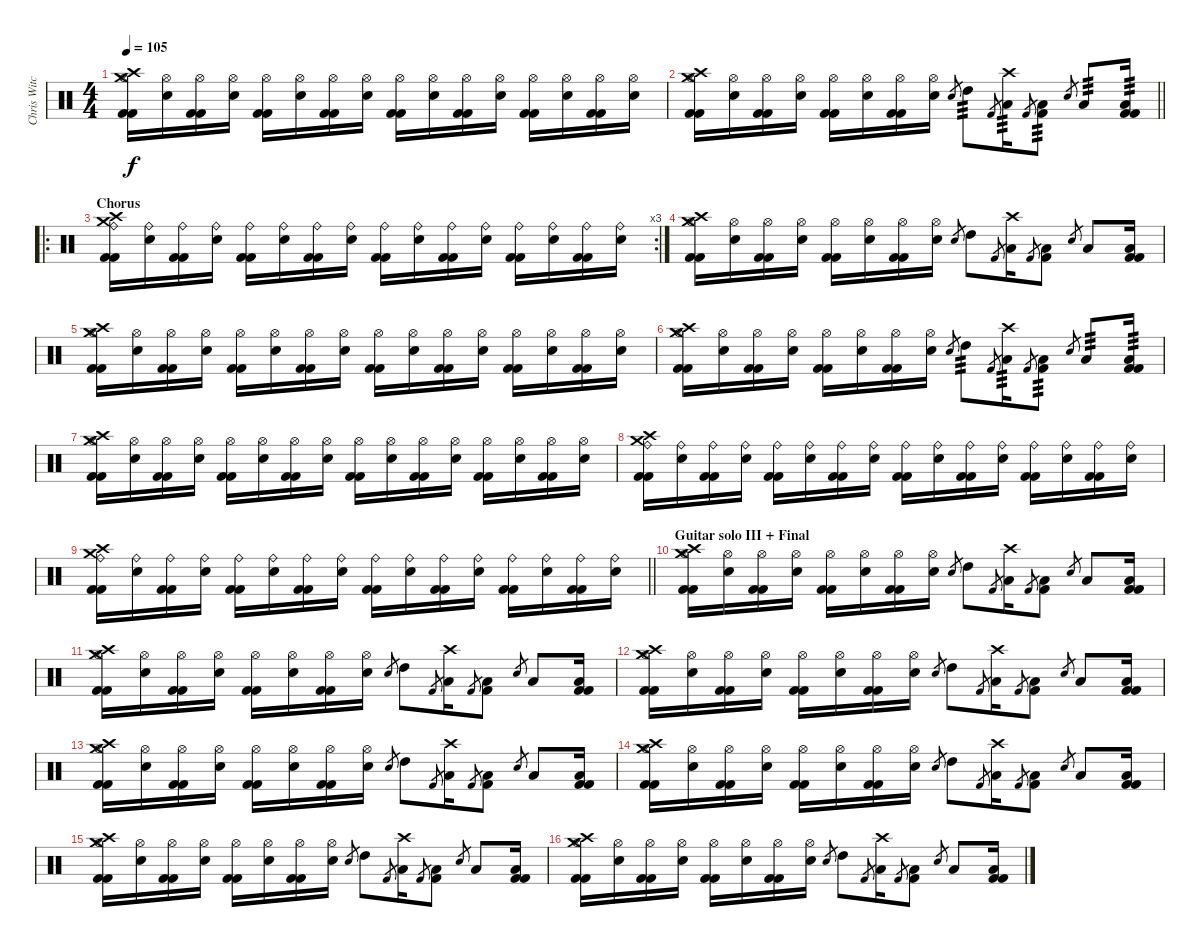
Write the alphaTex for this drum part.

\track ("Chris Witchhunter" "Chris Witc") {instrument percussion}
\staff {score}
\articulation defaults
\ts (4 4)
\tempo 105
\clef neutral
\ks c
("Crash medium (hit)" "Crash high (hit)" "Hi-Hat (open)" "Kick (hit) 2" "Kick (hit) 2").16{dy f} ("Hi-Hat (open)" "Electric Snare (hit)").16 ("Hi-Hat (open)" "Kick (hit) 2" "Kick (hit) 2").16 ("Hi-Hat (open)" "Electric Snare (hit)").16 ("Hi-Hat (open)" "Kick (hit) 2" "Kick (hit) 2").16 ("Hi-Hat (open)" "Electric Snare (hit)").16 ("Hi-Hat (open)" "Kick (hit) 2" "Kick (hit) 2").16 ("Hi-Hat (open)" "Electric Snare (hit)").16 ("Hi-Hat (open)" "Kick (hit) 2" "Kick (hit) 2").16 ("Hi-Hat (open)" "Electric Snare (hit)").16 ("Hi-Hat (open)" "Kick (hit) 2" "Kick (hit) 2").16 ("Hi-Hat (open)" "Electric Snare (hit)").16 ("Hi-Hat (open)" "Kick (hit) 2" "Kick (hit) 2").16 ("Hi-Hat (open)" "Electric Snare (hit)").16 ("Hi-Hat (open)" "Kick (hit) 2" "Kick (hit) 2").16 ("Hi-Hat (open)" "Electric Snare (hit)").16 |
\barLineRight lightlight
("Crash medium (hit)" "Crash high (hit)" "Hi-Hat (open)" "Kick (hit) 2" "Kick (hit) 2").16 ("Hi-Hat (open)" "Electric Snare (hit)").16 ("Hi-Hat (open)" "Kick (hit) 2" "Kick (hit) 2").16 ("Hi-Hat (open)" "Electric Snare (hit)").16 ("Hi-Hat (open)" "Kick (hit) 2" "Kick (hit) 2").16 ("Hi-Hat (open)" "Electric Snare (hit)").16 ("Hi-Hat (open)" "Kick (hit) 2" "Kick (hit) 2").16 ("Hi-Hat (open)" "Electric Snare (hit)").16 "Electric Snare (hit)".8{gr} "High Tom (hit)".8{tp 3} "Kick (hit) 2".8{gr} ("Crash high (hit)" "Low Tom (hit)").16{tp 3} "Kick (hit) 2".8{gr} ("Low Tom (hit)" "Kick (hit) 2").8{tp 3} "Electric Snare (hit)".8{gr} "Low Floor Tom (hit)".8{tp 3} ("Low Tom (hit)" "Kick (hit) 2" "Kick (hit) 2").16{tp 3} |
\ro
\rc 3
\section ("" "Chorus")
("Crash medium (hit)" "Crash high (hit)" "Ride (bell)" "Kick (hit) 2" "Kick (hit) 2").16 ("Ride (bell)" "Electric Snare (hit)").16 ("Ride (bell)" "Kick (hit) 2" "Kick (hit) 2").16 ("Ride (bell)" "Electric Snare (hit)").16 ("Ride (bell)" "Kick (hit) 2" "Kick (hit) 2").16 ("Ride (bell)" "Electric Snare (hit)").16 ("Ride (bell)" "Kick (hit) 2" "Kick (hit) 2").16 ("Ride (bell)" "Electric Snare (hit)").16 ("Ride (bell)" "Kick (hit) 2" "Kick (hit) 2").16 ("Ride (bell)" "Electric Snare (hit)").16 ("Ride (bell)" "Kick (hit) 2" "Kick (hit) 2").16 ("Ride (bell)" "Electric Snare (hit)").16 ("Ride (bell)" "Kick (hit) 2" "Kick (hit) 2").16 ("Ride (bell)" "Electric Snare (hit)").16 ("Ride (bell)" "Kick (hit) 2" "Kick (hit) 2").16 ("Ride (bell)" "Electric Snare (hit)").16 |
("Crash medium (hit)" "Crash high (hit)" "Hi-Hat (open)" "Kick (hit) 2" "Kick (hit) 2").16 ("Hi-Hat (open)" "Electric Snare (hit)").16 ("Hi-Hat (open)" "Kick (hit) 2" "Kick (hit) 2").16 ("Hi-Hat (open)" "Electric Snare (hit)").16 ("Hi-Hat (open)" "Kick (hit) 2" "Kick (hit) 2").16 ("Hi-Hat (open)" "Electric Snare (hit)").16 ("Hi-Hat (open)" "Kick (hit) 2" "Kick (hit) 2").16 ("Hi-Hat (open)" "Electric Snare (hit)").16 "Electric Snare (hit)".8{gr} "High Tom (hit)".8 "Kick (hit) 2".8{gr} ("Crash high (hit)" "Low Tom (hit)").16 "Kick (hit) 2".8{gr} ("Low Tom (hit)" "Kick (hit) 2").8 "Electric Snare (hit)".8{gr} "Low Floor Tom (hit)".8 ("Low Tom (hit)" "Kick (hit) 2" "Kick (hit) 2").16 |
("Crash medium (hit)" "Crash high (hit)" "Hi-Hat (open)" "Kick (hit) 2" "Kick (hit) 2").16 ("Hi-Hat (open)" "Electric Snare (hit)").16 ("Hi-Hat (open)" "Kick (hit) 2" "Kick (hit) 2").16 ("Hi-Hat (open)" "Electric Snare (hit)").16 ("Hi-Hat (open)" "Kick (hit) 2" "Kick (hit) 2").16 ("Hi-Hat (open)" "Electric Snare (hit)").16 ("Hi-Hat (open)" "Kick (hit) 2" "Kick (hit) 2").16 ("Hi-Hat (open)" "Electric Snare (hit)").16 ("Hi-Hat (open)" "Kick (hit) 2" "Kick (hit) 2").16 ("Hi-Hat (open)" "Electric Snare (hit)").16 ("Hi-Hat (open)" "Kick (hit) 2" "Kick (hit) 2").16 ("Hi-Hat (open)" "Electric Snare (hit)").16 ("Hi-Hat (open)" "Kick (hit) 2" "Kick (hit) 2").16 ("Hi-Hat (open)" "Electric Snare (hit)").16 ("Hi-Hat (open)" "Kick (hit) 2" "Kick (hit) 2").16 ("Hi-Hat (open)" "Electric Snare (hit)").16 |
("Crash medium (hit)" "Crash high (hit)" "Hi-Hat (open)" "Kick (hit) 2" "Kick (hit) 2").16 ("Hi-Hat (open)" "Electric Snare (hit)").16 ("Hi-Hat (open)" "Kick (hit) 2" "Kick (hit) 2").16 ("Hi-Hat (open)" "Electric Snare (hit)").16 ("Hi-Hat (open)" "Kick (hit) 2" "Kick (hit) 2").16 ("Hi-Hat (open)" "Electric Snare (hit)").16 ("Hi-Hat (open)" "Kick (hit) 2" "Kick (hit) 2").16 ("Hi-Hat (open)" "Electric Snare (hit)").16 "Electric Snare (hit)".8{gr} "High Tom (hit)".8{tp 3} "Kick (hit) 2".8{gr} ("Crash high (hit)" "Low Tom (hit)").16{tp 3} "Kick (hit) 2".8{gr} ("Low Tom (hit)" "Kick (hit) 2").8{tp 3} "Electric Snare (hit)".8{gr} "Low Floor Tom (hit)".8{tp 3} ("Low Tom (hit)" "Kick (hit) 2" "Kick (hit) 2").16{tp 3} |
("Crash medium (hit)" "Crash high (hit)" "Hi-Hat (open)" "Kick (hit) 2" "Kick (hit) 2").16 ("Hi-Hat (open)" "Electric Snare (hit)").16 ("Hi-Hat (open)" "Kick (hit) 2" "Kick (hit) 2").16 ("Hi-Hat (open)" "Electric Snare (hit)").16 ("Hi-Hat (open)" "Kick (hit) 2" "Kick (hit) 2").16 ("Hi-Hat (open)" "Electric Snare (hit)").16 ("Hi-Hat (open)" "Kick (hit) 2" "Kick (hit) 2").16 ("Hi-Hat (open)" "Electric Snare (hit)").16 ("Hi-Hat (open)" "Kick (hit) 2" "Kick (hit) 2").16 ("Hi-Hat (open)" "Electric Snare (hit)").16 ("Hi-Hat (open)" "Kick (hit) 2" "Kick (hit) 2").16 ("Hi-Hat (open)" "Electric Snare (hit)").16 ("Hi-Hat (open)" "Kick (hit) 2" "Kick (hit) 2").16 ("Hi-Hat (open)" "Electric Snare (hit)").16 ("Hi-Hat (open)" "Kick (hit) 2" "Kick (hit) 2").16 ("Hi-Hat (open)" "Electric Snare (hit)").16 |
("Crash medium (hit)" "Crash high (hit)" "Ride (bell)" "Kick (hit) 2" "Kick (hit) 2").16 ("Ride (bell)" "Electric Snare (hit)").16 ("Ride (bell)" "Kick (hit) 2" "Kick (hit) 2").16 ("Ride (bell)" "Electric Snare (hit)").16 ("Ride (bell)" "Kick (hit) 2" "Kick (hit) 2").16 ("Ride (bell)" "Electric Snare (hit)").16 ("Ride (bell)" "Kick (hit) 2" "Kick (hit) 2").16 ("Ride (bell)" "Electric Snare (hit)").16 ("Ride (bell)" "Kick (hit) 2" "Kick (hit) 2").16 ("Ride (bell)" "Electric Snare (hit)").16 ("Ride (bell)" "Kick (hit) 2" "Kick (hit) 2").16 ("Ride (bell)" "Electric Snare (hit)").16 ("Ride (bell)" "Kick (hit) 2" "Kick (hit) 2").16 ("Ride (bell)" "Electric Snare (hit)").16 ("Ride (bell)" "Kick (hit) 2" "Kick (hit) 2").16 ("Ride (bell)" "Electric Snare (hit)").16 |
\barLineRight lightlight
("Crash medium (hit)" "Crash high (hit)" "Ride (bell)" "Kick (hit) 2" "Kick (hit) 2").16 ("Ride (bell)" "Electric Snare (hit)").16 ("Ride (bell)" "Kick (hit) 2" "Kick (hit) 2").16 ("Ride (bell)" "Electric Snare (hit)").16 ("Ride (bell)" "Kick (hit) 2" "Kick (hit) 2").16 ("Ride (bell)" "Electric Snare (hit)").16 ("Ride (bell)" "Kick (hit) 2" "Kick (hit) 2").16 ("Ride (bell)" "Electric Snare (hit)").16 ("Ride (bell)" "Kick (hit) 2" "Kick (hit) 2").16 ("Ride (bell)" "Electric Snare (hit)").16 ("Ride (bell)" "Kick (hit) 2" "Kick (hit) 2").16 ("Ride (bell)" "Electric Snare (hit)").16 ("Ride (bell)" "Kick (hit) 2" "Kick (hit) 2").16 ("Ride (bell)" "Electric Snare (hit)").16 ("Ride (bell)" "Kick (hit) 2" "Kick (hit) 2").16 ("Ride (bell)" "Electric Snare (hit)").16 |
\section ("" "Guitar solo III + Final")
("Crash medium (hit)" "Crash high (hit)" "Hi-Hat (open)" "Kick (hit) 2" "Kick (hit) 2").16 ("Hi-Hat (open)" "Electric Snare (hit)").16 ("Hi-Hat (open)" "Kick (hit) 2" "Kick (hit) 2").16 ("Hi-Hat (open)" "Electric Snare (hit)").16 ("Hi-Hat (open)" "Kick (hit) 2" "Kick (hit) 2").16 ("Hi-Hat (open)" "Electric Snare (hit)").16 ("Hi-Hat (open)" "Kick (hit) 2" "Kick (hit) 2").16 ("Hi-Hat (open)" "Electric Snare (hit)").16 "Electric Snare (hit)".8{gr} "High Tom (hit)".8 "Kick (hit) 2".8{gr} ("Crash high (hit)" "Low Tom (hit)").16 "Kick (hit) 2".8{gr} ("Low Tom (hit)" "Kick (hit) 2").8 "Electric Snare (hit)".8{gr} "Low Floor Tom (hit)".8 ("Low Tom (hit)" "Kick (hit) 2" "Kick (hit) 2").16 |
("Crash medium (hit)" "Crash high (hit)" "Hi-Hat (open)" "Kick (hit) 2" "Kick (hit) 2").16 ("Hi-Hat (open)" "Electric Snare (hit)").16 ("Hi-Hat (open)" "Kick (hit) 2" "Kick (hit) 2").16 ("Hi-Hat (open)" "Electric Snare (hit)").16 ("Hi-Hat (open)" "Kick (hit) 2" "Kick (hit) 2").16 ("Hi-Hat (open)" "Electric Snare (hit)").16 ("Hi-Hat (open)" "Kick (hit) 2" "Kick (hit) 2").16 ("Hi-Hat (open)" "Electric Snare (hit)").16 "Electric Snare (hit)".8{gr} "High Tom (hit)".8 "Kick (hit) 2".8{gr} ("Crash high (hit)" "Low Tom (hit)").16 "Kick (hit) 2".8{gr} ("Low Tom (hit)" "Kick (hit) 2").8 "Electric Snare (hit)".8{gr} "Low Floor Tom (hit)".8 ("Low Tom (hit)" "Kick (hit) 2" "Kick (hit) 2").16 |
("Crash medium (hit)" "Crash high (hit)" "Hi-Hat (open)" "Kick (hit) 2" "Kick (hit) 2").16 ("Hi-Hat (open)" "Electric Snare (hit)").16 ("Hi-Hat (open)" "Kick (hit) 2" "Kick (hit) 2").16 ("Hi-Hat (open)" "Electric Snare (hit)").16 ("Hi-Hat (open)" "Kick (hit) 2" "Kick (hit) 2").16 ("Hi-Hat (open)" "Electric Snare (hit)").16 ("Hi-Hat (open)" "Kick (hit) 2" "Kick (hit) 2").16 ("Hi-Hat (open)" "Electric Snare (hit)").16 "Electric Snare (hit)".8{gr} "High Tom (hit)".8 "Kick (hit) 2".8{gr} ("Crash high (hit)" "Low Tom (hit)").16 "Kick (hit) 2".8{gr} ("Low Tom (hit)" "Kick (hit) 2").8 "Electric Snare (hit)".8{gr} "Low Floor Tom (hit)".8 ("Low Tom (hit)" "Kick (hit) 2" "Kick (hit) 2").16 |
("Crash medium (hit)" "Crash high (hit)" "Hi-Hat (open)" "Kick (hit) 2" "Kick (hit) 2").16 ("Hi-Hat (open)" "Electric Snare (hit)").16 ("Hi-Hat (open)" "Kick (hit) 2" "Kick (hit) 2").16 ("Hi-Hat (open)" "Electric Snare (hit)").16 ("Hi-Hat (open)" "Kick (hit) 2" "Kick (hit) 2").16 ("Hi-Hat (open)" "Electric Snare (hit)").16 ("Hi-Hat (open)" "Kick (hit) 2" "Kick (hit) 2").16 ("Hi-Hat (open)" "Electric Snare (hit)").16 "Electric Snare (hit)".8{gr} "High Tom (hit)".8 "Kick (hit) 2".8{gr} ("Crash high (hit)" "Low Tom (hit)").16 "Kick (hit) 2".8{gr} ("Low Tom (hit)" "Kick (hit) 2").8 "Electric Snare (hit)".8{gr} "Low Floor Tom (hit)".8 ("Low Tom (hit)" "Kick (hit) 2" "Kick (hit) 2").16 |
("Crash medium (hit)" "Crash high (hit)" "Hi-Hat (open)" "Kick (hit) 2" "Kick (hit) 2").16 ("Hi-Hat (open)" "Electric Snare (hit)").16 ("Hi-Hat (open)" "Kick (hit) 2" "Kick (hit) 2").16 ("Hi-Hat (open)" "Electric Snare (hit)").16 ("Hi-Hat (open)" "Kick (hit) 2" "Kick (hit) 2").16 ("Hi-Hat (open)" "Electric Snare (hit)").16 ("Hi-Hat (open)" "Kick (hit) 2" "Kick (hit) 2").16 ("Hi-Hat (open)" "Electric Snare (hit)").16 "Electric Snare (hit)".8{gr} "High Tom (hit)".8 "Kick (hit) 2".8{gr} ("Crash high (hit)" "Low Tom (hit)").16 "Kick (hit) 2".8{gr} ("Low Tom (hit)" "Kick (hit) 2").8 "Electric Snare (hit)".8{gr} "Low Floor Tom (hit)".8 ("Low Tom (hit)" "Kick (hit) 2" "Kick (hit) 2").16 |
("Crash medium (hit)" "Crash high (hit)" "Hi-Hat (open)" "Kick (hit) 2" "Kick (hit) 2").16 ("Hi-Hat (open)" "Electric Snare (hit)").16 ("Hi-Hat (open)" "Kick (hit) 2" "Kick (hit) 2").16 ("Hi-Hat (open)" "Electric Snare (hit)").16 ("Hi-Hat (open)" "Kick (hit) 2" "Kick (hit) 2").16 ("Hi-Hat (open)" "Electric Snare (hit)").16 ("Hi-Hat (open)" "Kick (hit) 2" "Kick (hit) 2").16 ("Hi-Hat (open)" "Electric Snare (hit)").16 "Electric Snare (hit)".8{gr} "High Tom (hit)".8 "Kick (hit) 2".8{gr} ("Crash high (hit)" "Low Tom (hit)").16 "Kick (hit) 2".8{gr} ("Low Tom (hit)" "Kick (hit) 2").8 "Electric Snare (hit)".8{gr} "Low Floor Tom (hit)".8 ("Low Tom (hit)" "Kick (hit) 2" "Kick (hit) 2").16 |
("Crash medium (hit)" "Crash high (hit)" "Hi-Hat (open)" "Kick (hit) 2" "Kick (hit) 2").16 ("Hi-Hat (open)" "Electric Snare (hit)").16 ("Hi-Hat (open)" "Kick (hit) 2" "Kick (hit) 2").16 ("Hi-Hat (open)" "Electric Snare (hit)").16 ("Hi-Hat (open)" "Kick (hit) 2" "Kick (hit) 2").16 ("Hi-Hat (open)" "Electric Snare (hit)").16 ("Hi-Hat (open)" "Kick (hit) 2" "Kick (hit) 2").16 ("Hi-Hat (open)" "Electric Snare (hit)").16 "Electric Snare (hit)".8{gr} "High Tom (hit)".8 "Kick (hit) 2".8{gr} ("Crash high (hit)" "Low Tom (hit)").16 "Kick (hit) 2".8{gr} ("Low Tom (hit)" "Kick (hit) 2").8 "Electric Snare (hit)".8{gr} "Low Floor Tom (hit)".8 ("Low Tom (hit)" "Kick (hit) 2" "Kick (hit) 2").16
